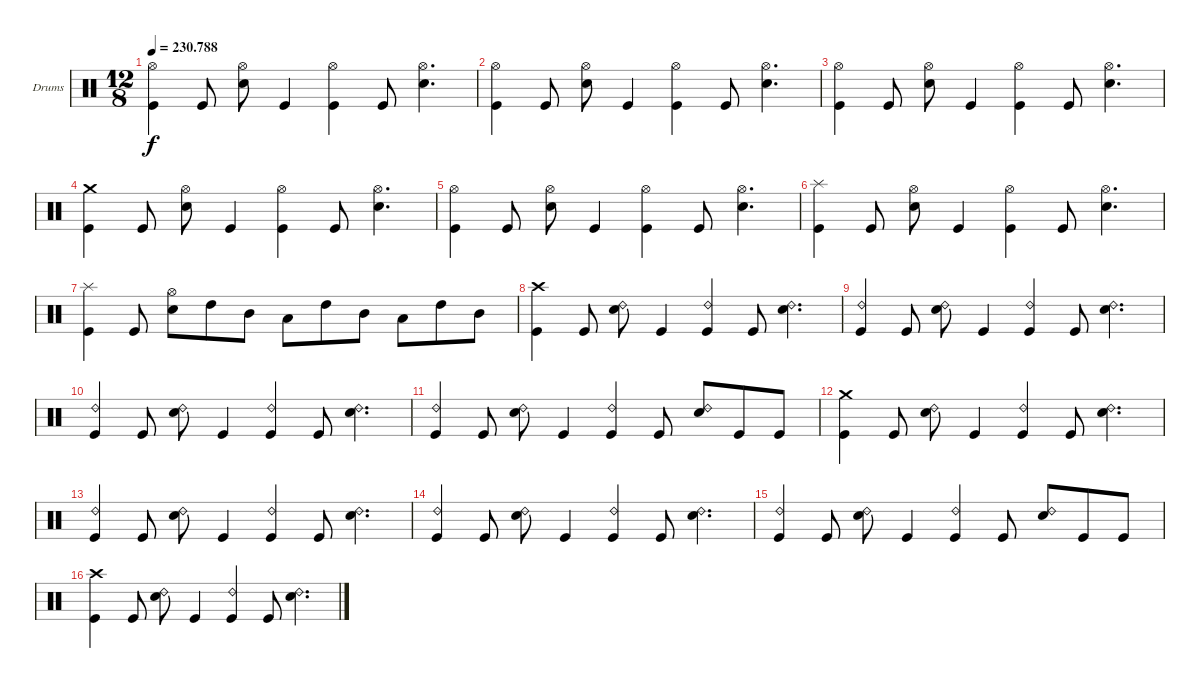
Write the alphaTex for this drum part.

\bracketExtendMode groupsimilarinstruments
\firstSystemTrackNameOrientation horizontal
\otherSystemsTrackNameOrientation horizontal
\track ("Ударные" "Drums") {instrument percussion}
\staff {score}
\articulation defaults
\ts (12 8)
\tempo
230.788
\accidentals auto
\clef neutral
\ottava regular
\simile none
\ks c
("Hi-Hat (open)" "Kick (hit)").4{dy f} "Kick (hit)".8 ("Hi-Hat (open)" "Snare (hit) 2").8 "Kick (hit)".4 ("Hi-Hat (open)" "Kick (hit)").4 "Kick (hit)".8 ("Hi-Hat (open)" "Snare (hit) 2").4{d} |
("Hi-Hat (open)" "Kick (hit)").4 "Kick (hit)".8 ("Hi-Hat (open)" "Snare (hit) 2").8 "Kick (hit)".4 ("Hi-Hat (open)" "Kick (hit)").4 "Kick (hit)".8 ("Hi-Hat (open)" "Snare (hit) 2").4{d} |
("Hi-Hat (open)" "Kick (hit)").4 "Kick (hit)".8 ("Hi-Hat (open)" "Snare (hit) 2").8 "Kick (hit)".4 ("Hi-Hat (open)" "Kick (hit)").4 "Kick (hit)".8 ("Hi-Hat (open)" "Snare (hit) 2").4{d} |
("Kick (hit)" "Crash medium (hit)").4 "Kick (hit)".8 ("Snare (hit) 2" "Hi-Hat (open)").8 "Kick (hit)".4 ("Kick (hit)" "Hi-Hat (open)").4 "Kick (hit)".8 ("Snare (hit) 2" "Hi-Hat (open)").4{d} |
("Hi-Hat (open)" "Kick (hit)").4 "Kick (hit)".8 ("Hi-Hat (open)" "Snare (hit) 2").8 "Kick (hit)".4 ("Hi-Hat (open)" "Kick (hit)").4 "Kick (hit)".8 ("Hi-Hat (open)" "Snare (hit) 2").4{d} |
("Splash (hit)" "Kick (hit)").4 "Kick (hit)".8 ("Hi-Hat (open)" "Snare (hit) 2").8 "Kick (hit)".4 ("Hi-Hat (open)" "Kick (hit)").4 "Kick (hit)".8 ("Hi-Hat (open)" "Snare (hit) 2").4{d} |
("Splash (hit)" "Kick (hit)").4 "Kick (hit)".8 ("Hi-Hat (open)" "Snare (hit) 2").8 "High Tom (hit)".8 "Mid Tom (hit)".8 "Low Tom (hit)".8 "High Tom (hit)".8 "Mid Tom (hit)".8 "Low Tom (hit)".8 "High Tom (hit)".8 "Mid Tom (hit)".8 |
("Crash high (hit)" "Kick (hit)").4 "Kick (hit)".8 ("Ride (bell) 2" "Snare (hit) 2").8 "Kick (hit)".4 ("Ride (bell) 2" "Kick (hit)").4 "Kick (hit)".8 ("Ride (bell) 2" "Snare (hit) 2").4{d} |
("Ride (bell) 2" "Kick (hit)").4 "Kick (hit)".8 ("Ride (bell) 2" "Snare (hit) 2").8 "Kick (hit)".4 ("Ride (bell) 2" "Kick (hit)").4 "Kick (hit)".8 ("Ride (bell) 2" "Snare (hit) 2").4{d} |
("Kick (hit)" "Ride (bell) 2").4 "Kick (hit)".8 ("Ride (bell) 2" "Snare (hit) 2").8 "Kick (hit)".4 ("Kick (hit)" "Ride (bell) 2").4 "Kick (hit)".8 ("Ride (bell) 2" "Snare (hit) 2").4{d} |
("Kick (hit)" "Ride (bell) 2").4 "Kick (hit)".8 ("Ride (bell) 2" "Snare (hit) 2").8 "Kick (hit)".4 ("Ride (bell) 2" "Kick (hit)").4 "Kick (hit)".8 ("Ride (bell) 2" "Snare (hit) 2").8 "Kick (hit)".8 "Kick (hit)".8 |
("Crash medium (hit)" "Kick (hit)").4 "Kick (hit)".8 ("Ride (bell) 2" "Snare (hit) 2").8 "Kick (hit)".4 ("Ride (bell) 2" "Kick (hit)").4 "Kick (hit)".8 ("Ride (bell) 2" "Snare (hit) 2").4{d} |
("Ride (bell) 2" "Kick (hit)").4 "Kick (hit)".8 ("Ride (bell) 2" "Snare (hit) 2").8 "Kick (hit)".4 ("Ride (bell) 2" "Kick (hit)").4 "Kick (hit)".8 ("Ride (bell) 2" "Snare (hit) 2").4{d} |
("Kick (hit)" "Ride (bell) 2").4 "Kick (hit)".8 ("Ride (bell) 2" "Snare (hit) 2").8 "Kick (hit)".4 ("Kick (hit)" "Ride (bell) 2").4 "Kick (hit)".8 ("Ride (bell) 2" "Snare (hit) 2").4{d} |
("Kick (hit)" "Ride (bell) 2").4 "Kick (hit)".8 ("Ride (bell) 2" "Snare (hit) 2").8 "Kick (hit)".4 ("Ride (bell) 2" "Kick (hit)").4 "Kick (hit)".8 ("Ride (bell) 2" "Snare (hit) 2").8 "Kick (hit)".8 "Kick (hit)".8 |
("Crash high (hit)" "Kick (hit)").4 "Kick (hit)".8 ("Ride (bell) 2" "Snare (hit) 2").8 "Kick (hit)".4 ("Ride (bell) 2" "Kick (hit)").4 "Kick (hit)".8 ("Ride (bell) 2" "Snare (hit) 2").4{d}
